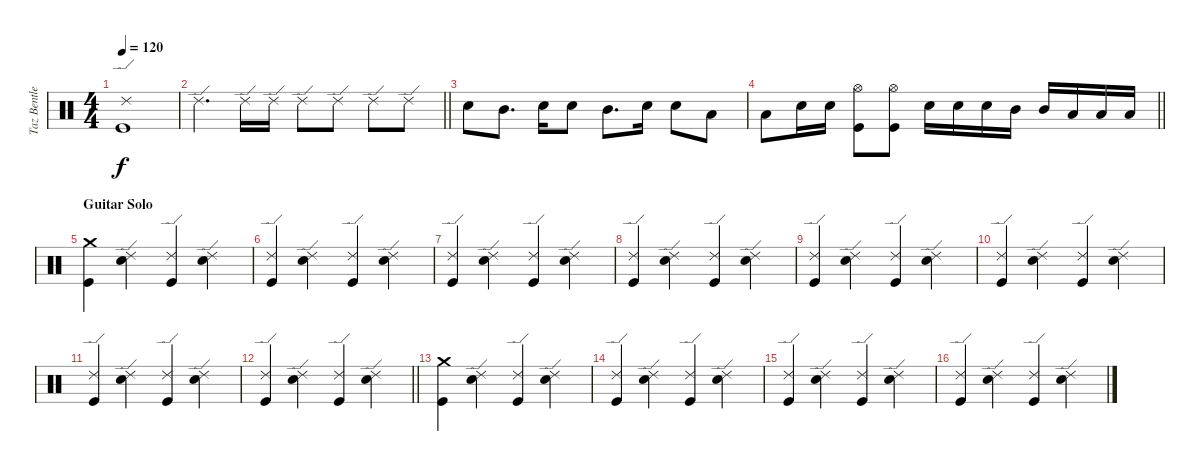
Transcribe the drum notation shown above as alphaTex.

\track ("Taz Bentley - drums" "Taz Bentle") {instrument percussion}
\staff
\articulation defaults
\ts (4 4)
\tempo 120
\clef neutral
\ks c
("Ride (edge) 2" "Kick (hit)").1{dy f} |
\barLineRight lightlight "Ride (edge) 2".4{d} "Ride (edge) 2".16 "Ride (edge) 2".16 "Ride (edge) 2".8 "Ride (edge) 2".8 "Ride (edge) 2".8 "Ride (edge) 2".8
|
"Electric Snare (hit)".8 "Mid Tom (hit)".8{d} "Electric Snare (hit)".16 "Electric Snare (hit)".8 "Mid Tom (hit)".8{d} "Electric Snare (hit)".16 "Electric Snare (hit)".8 "Low Tom (hit)".8 |
\barLineRight lightlight "Low Tom (hit)".8 "Electric Snare (hit)".16 "Electric Snare (hit)".16
("Hi-Hat (open)" "Kick (hit)").8 ("Hi-Hat (open)" "Kick (hit)").8 "Electric Snare (hit)".16 "Electric Snare (hit)".16 "Electric Snare (hit)".16 "Mid Tom (hit)".16 "Mid Tom (hit)".16 "Low Tom (hit)".16 "Low Tom (hit)".16 "Low Tom (hit)".16 |
\section ("" "Guitar Solo")
("Crash medium (hit)" "Kick (hit)").4 ("Ride (edge) 2" "Electric Snare (hit)").4 ("Ride (edge) 2" "Kick (hit)").4 ("Ride (edge) 2" "Electric Snare (hit)").4 |
("Ride (edge) 2" "Kick (hit)").4 ("Ride (edge) 2" "Electric Snare (hit)").4 ("Ride (edge) 2" "Kick (hit)").4 ("Ride (edge) 2" "Electric Snare (hit)").4 |
("Ride (edge) 2" "Kick (hit)").4 ("Ride (edge) 2" "Electric Snare (hit)").4 ("Ride (edge) 2" "Kick (hit)").4 ("Ride (edge) 2" "Electric Snare (hit)").4 |
("Ride (edge) 2" "Kick (hit)").4 ("Ride (edge) 2" "Electric Snare (hit)").4 ("Ride (edge) 2" "Kick (hit)").4 ("Ride (edge) 2" "Electric Snare (hit)").4 |
("Ride (edge) 2" "Kick (hit)").4 ("Ride (edge) 2" "Electric Snare (hit)").4 ("Ride (edge) 2" "Kick (hit)").4 ("Ride (edge) 2" "Electric Snare (hit)").4 |
("Ride (edge) 2" "Kick (hit)").4 ("Ride (edge) 2" "Electric Snare (hit)").4 ("Ride (edge) 2" "Kick (hit)").4 ("Ride (edge) 2" "Electric Snare (hit)").4 |
("Ride (edge) 2" "Kick (hit)").4 ("Ride (edge) 2" "Electric Snare (hit)").4 ("Ride (edge) 2" "Kick (hit)").4 ("Ride (edge) 2" "Electric Snare (hit)").4 |
\barLineRight lightlight
("Ride (edge) 2" "Kick (hit)").4 ("Ride (edge) 2" "Electric Snare (hit)").4 ("Ride (edge) 2" "Kick (hit)").4 ("Ride (edge) 2" "Electric Snare (hit)").4 |
("Crash medium (hit)" "Kick (hit)").4 ("Ride (edge) 2" "Electric Snare (hit)").4 ("Ride (edge) 2" "Kick (hit)").4 ("Ride (edge) 2" "Electric Snare (hit)").4 |
("Ride (edge) 2" "Kick (hit)").4 ("Ride (edge) 2" "Electric Snare (hit)").4 ("Ride (edge) 2" "Kick (hit)").4 ("Ride (edge) 2" "Electric Snare (hit)").4 |
("Ride (edge) 2" "Kick (hit)").4 ("Ride (edge) 2" "Electric Snare (hit)").4 ("Ride (edge) 2" "Kick (hit)").4 ("Ride (edge) 2" "Electric Snare (hit)").4 |
("Ride (edge) 2" "Kick (hit)").4 ("Ride (edge) 2" "Electric Snare (hit)").4 ("Ride (edge) 2" "Kick (hit)").4 ("Ride (edge) 2" "Electric Snare (hit)").4
